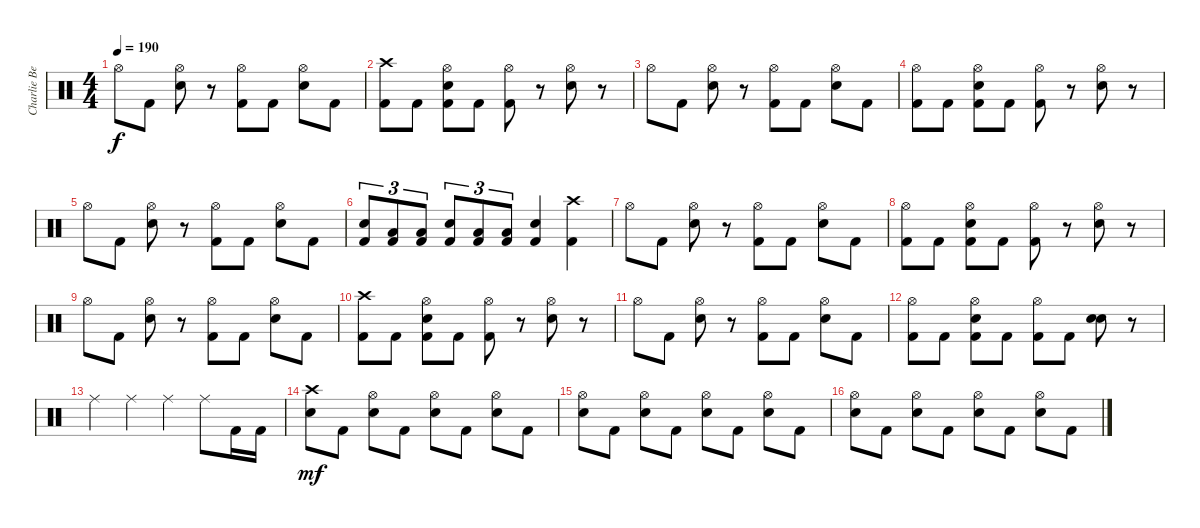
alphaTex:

\track ("Charlie Benante" "Charlie Be") {instrument percussion}
\staff {score}
\articulation defaults
\ts (4 4)
\tempo 190
\clef neutral
\ks c "Hi-Hat (open)".8{dy f} "Kick (hit) 2".8
("Snare (hit) 2" "Hi-Hat (open)").8 r.8 ("Kick (hit) 2" "Hi-Hat (open)").8 "Kick (hit) 2".8 ("Snare (hit) 2" "Hi-Hat (open)").8 "Kick (hit) 2".8 |
("Kick (hit) 2" "Crash high (hit)").8 "Kick (hit) 2".8 ("Kick (hit) 2" "Hi-Hat (open)" "Snare (hit) 2").8 "Kick (hit) 2".8 ("Kick (hit) 2" "Hi-Hat (open)").8 r.8 ("Snare (hit) 2" "Hi-Hat (open)").8 r.8 |
"Hi-Hat (open)".8 "Kick (hit) 2".8 ("Snare (hit) 2" "Hi-Hat (open)").8 r.8 ("Kick (hit) 2" "Hi-Hat (open)").8 "Kick (hit) 2".8 ("Snare (hit) 2" "Hi-Hat (open)").8 "Kick (hit) 2".8 |
("Kick (hit) 2" "Hi-Hat (open)").8 "Kick (hit) 2".8 ("Kick (hit) 2" "Hi-Hat (open)" "Snare (hit) 2").8 "Kick (hit) 2".8 ("Kick (hit) 2" "Hi-Hat (open)").8 r.8 ("Snare (hit) 2" "Hi-Hat (open)").8 r.8 |
"Hi-Hat (open)".8 "Kick (hit) 2".8 ("Snare (hit) 2" "Hi-Hat (open)").8 r.8 ("Kick (hit) 2" "Hi-Hat (open)").8 "Kick (hit) 2".8 ("Snare (hit) 2" "Hi-Hat (open)").8 "Kick (hit) 2".8 |
("Kick (hit) 2" "Snare (hit) 2").8{tu (3 2)} ("Kick (hit) 2" "Low Tom (hit)").8{tu (3 2)} ("Kick (hit) 2" "Low Tom (hit)").8{tu (3 2)} ("Kick (hit) 2" "Snare (hit) 2").8{tu (3 2)} ("Kick (hit) 2" "Low Tom (hit)").8{tu (3 2)} ("Kick (hit) 2" "Low Tom (hit)").8{tu (3 2)} ("Kick (hit) 2" "Snare (hit) 2").4 ("Kick (hit) 2" "Crash high (hit)").4 |
"Hi-Hat (open)".8 "Kick (hit) 2".8 ("Snare (hit) 2" "Hi-Hat (open)").8 r.8 ("Kick (hit) 2" "Hi-Hat (open)").8 "Kick (hit) 2".8 ("Snare (hit) 2" "Hi-Hat (open)").8 "Kick (hit) 2".8 |
("Kick (hit) 2" "Hi-Hat (open)").8 "Kick (hit) 2".8 ("Kick (hit) 2" "Hi-Hat (open)" "Snare (hit) 2").8 "Kick (hit) 2".8 ("Kick (hit) 2" "Hi-Hat (open)").8 r.8 ("Snare (hit) 2" "Hi-Hat (open)").8 r.8 |
"Hi-Hat (open)".8 "Kick (hit) 2".8 ("Snare (hit) 2" "Hi-Hat (open)").8 r.8 ("Kick (hit) 2" "Hi-Hat (open)").8 "Kick (hit) 2".8 ("Snare (hit) 2" "Hi-Hat (open)").8 "Kick (hit) 2".8 |
("Kick (hit) 2" "Crash high (hit)").8 "Kick (hit) 2".8 ("Kick (hit) 2" "Hi-Hat (open)" "Snare (hit) 2").8 "Kick (hit) 2".8 ("Kick (hit) 2" "Hi-Hat (open)").8 r.8 ("Snare (hit) 2" "Hi-Hat (open)").8 r.8 |
"Hi-Hat (open)".8 "Kick (hit) 2".8 ("Snare (hit) 2" "Hi-Hat (open)").8 r.8 ("Kick (hit) 2" "Hi-Hat (open)").8 "Kick (hit) 2".8 ("Snare (hit) 2" "Hi-Hat (open)").8 "Kick (hit) 2".8 |
("Kick (hit) 2" "Hi-Hat (open)").8 "Kick (hit) 2".8 ("Kick (hit) 2" "Hi-Hat (open)" "Snare (hit) 2").8 "Kick (hit) 2".8 ("Kick (hit) 2" "Hi-Hat (open)").8 "Kick (hit) 2".8 ("Snare (hit) 2" "Snare (hit) 2").8{bd 480} r.8 |
"Ride (middle)".4 "Ride (middle)".4 "Ride (middle)".4 "Ride (middle)".8 "Kick (hit) 2".16 "Kick (hit) 2".16 |
("Snare (hit) 2" "Crash high (hit)").8{dy mf} "Kick (hit) 2".8 ("Snare (hit) 2" "Hi-Hat (open)").8 "Kick (hit) 2".8 ("Snare (hit) 2" "Hi-Hat (open)").8 "Kick (hit) 2".8 ("Snare (hit) 2" "Hi-Hat (open)").8 "Kick (hit) 2".8 |
("Snare (hit) 2" "Hi-Hat (open)").8 "Kick (hit) 2".8 ("Snare (hit) 2" "Hi-Hat (open)").8 "Kick (hit) 2".8 ("Snare (hit) 2" "Hi-Hat (open)").8 "Kick (hit) 2".8 ("Snare (hit) 2" "Hi-Hat (open)").8 "Kick (hit) 2".8 |
("Snare (hit) 2" "Hi-Hat (open)").8 "Kick (hit) 2".8 ("Snare (hit) 2" "Hi-Hat (open)").8 "Kick (hit) 2".8 ("Snare (hit) 2" "Hi-Hat (open)").8 "Kick (hit) 2".8 ("Snare (hit) 2" "Hi-Hat (open)").8 "Kick (hit) 2".8
